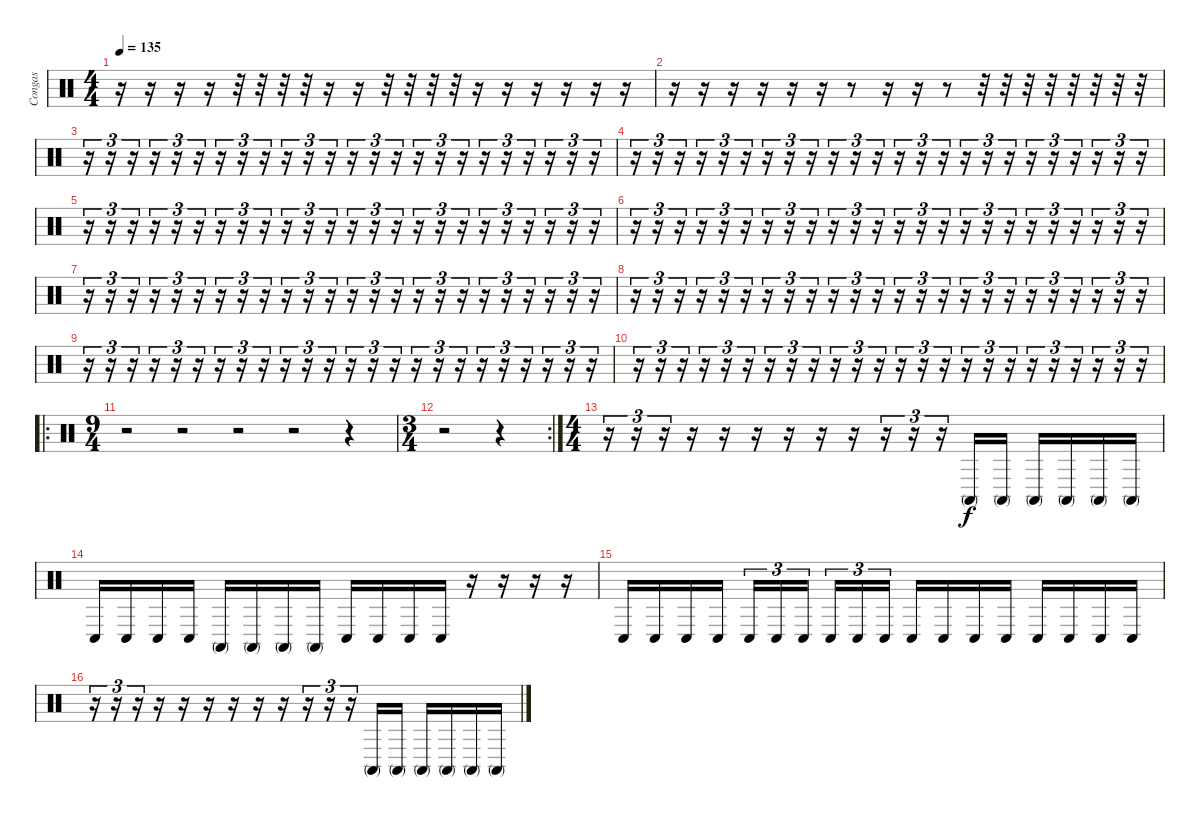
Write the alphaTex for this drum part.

\track ("Congas" "Congas") {mute instrument percussion}
\staff {score}
\articulation defaults
\ts (4 4)
\tempo 135
\clef neutral
\ks c
r.16{dy f} r.16 r.16 r.16 r.32 r.32 r.32 r.32 r.16 r.16 r.32 r.32 r.32 r.32 r.16 r.16 r.16 r.16 r.16 r.16 |
r.16 r.16 r.16 r.16 r.16 r.16 r.8 r.16 r.16 r.8 r.32 r.32 r.32 r.32 r.32 r.32 r.32 r.32 |
r.16{tu (3 2)} r.16{tu (3 2)} r.16{tu (3 2)} r.16{tu (3 2)} r.16{tu (3 2)} r.16{tu (3 2)} r.16{tu (3 2)} r.16{tu (3 2)} r.16{tu (3 2)} r.16{tu (3 2)} r.16{tu (3 2)} r.16{tu (3 2)} r.16{tu (3 2)} r.16{tu (3 2)} r.16{tu (3 2)} r.16{tu (3 2)} r.16{tu (3 2)} r.16{tu (3 2)} r.16{tu (3 2)} r.16{tu (3 2)} r.16{tu (3 2)} r.16{tu (3 2)} r.16{tu (3 2)} r.16{tu (3 2)} |
r.16{tu (3 2)} r.16{tu (3 2)} r.16{tu (3 2)} r.16{tu (3 2)} r.16{tu (3 2)} r.16{tu (3 2)} r.16{tu (3 2)} r.16{tu (3 2)} r.16{tu (3 2)} r.16{tu (3 2)} r.16{tu (3 2)} r.16{tu (3 2)} r.16{tu (3 2)} r.16{tu (3 2)} r.16{tu (3 2)} r.16{tu (3 2)} r.16{tu (3 2)} r.16{tu (3 2)} r.16{tu (3 2)} r.16{tu (3 2)} r.16{tu (3 2)} r.16{tu (3 2)} r.16{tu (3 2)} r.16{tu (3 2)} |
r.16{tu (3 2)} r.16{tu (3 2)} r.16{tu (3 2)} r.16{tu (3 2)} r.16{tu (3 2)} r.16{tu (3 2)} r.16{tu (3 2)} r.16{tu (3 2)} r.16{tu (3 2)} r.16{tu (3 2)} r.16{tu (3 2)} r.16{tu (3 2)} r.16{tu (3 2)} r.16{tu (3 2)} r.16{tu (3 2)} r.16{tu (3 2)} r.16{tu (3 2)} r.16{tu (3 2)} r.16{tu (3 2)} r.16{tu (3 2)} r.16{tu (3 2)} r.16{tu (3 2)} r.16{tu (3 2)} r.16{tu (3 2)} |
r.16{tu (3 2)} r.16{tu (3 2)} r.16{tu (3 2)} r.16{tu (3 2)} r.16{tu (3 2)} r.16{tu (3 2)} r.16{tu (3 2)} r.16{tu (3 2)} r.16{tu (3 2)} r.16{tu (3 2)} r.16{tu (3 2)} r.16{tu (3 2)} r.16{tu (3 2)} r.16{tu (3 2)} r.16{tu (3 2)} r.16{tu (3 2)} r.16{tu (3 2)} r.16{tu (3 2)} r.16{tu (3 2)} r.16{tu (3 2)} r.16{tu (3 2)} r.16{tu (3 2)} r.16{tu (3 2)} r.16{tu (3 2)} |
r.16{tu (3 2)} r.16{tu (3 2)} r.16{tu (3 2)} r.16{tu (3 2)} r.16{tu (3 2)} r.16{tu (3 2)} r.16{tu (3 2)} r.16{tu (3 2)} r.16{tu (3 2)} r.16{tu (3 2)} r.16{tu (3 2)} r.16{tu (3 2)} r.16{tu (3 2)} r.16{tu (3 2)} r.16{tu (3 2)} r.16{tu (3 2)} r.16{tu (3 2)} r.16{tu (3 2)} r.16{tu (3 2)} r.16{tu (3 2)} r.16{tu (3 2)} r.16{tu (3 2)} r.16{tu (3 2)} r.16{tu (3 2)} |
r.16{tu (3 2)} r.16{tu (3 2)} r.16{tu (3 2)} r.16{tu (3 2)} r.16{tu (3 2)} r.16{tu (3 2)} r.16{tu (3 2)} r.16{tu (3 2)} r.16{tu (3 2)} r.16{tu (3 2)} r.16{tu (3 2)} r.16{tu (3 2)} r.16{tu (3 2)} r.16{tu (3 2)} r.16{tu (3 2)} r.16{tu (3 2)} r.16{tu (3 2)} r.16{tu (3 2)} r.16{tu (3 2)} r.16{tu (3 2)} r.16{tu (3 2)} r.16{tu (3 2)} r.16{tu (3 2)} r.16{tu (3 2)} |
r.16{tu (3 2)} r.16{tu (3 2)} r.16{tu (3 2)} r.16{tu (3 2)} r.16{tu (3 2)} r.16{tu (3 2)} r.16{tu (3 2)} r.16{tu (3 2)} r.16{tu (3 2)} r.16{tu (3 2)} r.16{tu (3 2)} r.16{tu (3 2)} r.16{tu (3 2)} r.16{tu (3 2)} r.16{tu (3 2)} r.16{tu (3 2)} r.16{tu (3 2)} r.16{tu (3 2)} r.16{tu (3 2)} r.16{tu (3 2)} r.16{tu (3 2)} r.16{tu (3 2)} r.16{tu (3 2)} r.16{tu (3 2)} |
r.16{tu (3 2)} r.16{tu (3 2)} r.16{tu (3 2)} r.16{tu (3 2)} r.16{tu (3 2)} r.16{tu (3 2)} r.16{tu (3 2)} r.16{tu (3 2)} r.16{tu (3 2)} r.16{tu (3 2)} r.16{tu (3 2)} r.16{tu (3 2)} r.16{tu (3 2)} r.16{tu (3 2)} r.16{tu (3 2)} r.16{tu (3 2)} r.16{tu (3 2)} r.16{tu (3 2)} r.16{tu (3 2)} r.16{tu (3 2)} r.16{tu (3 2)} r.16{tu (3 2)} r.16{tu (3 2)} r.16{tu (3 2)} |
\ro
\ts (9 4)
r.2 r.2 r.2 r.2 r.4 |
\rc 2
\ts (3 4)
r.2 r.4 |
\ts (4 4)
r.16{tu (3 2)} r.16{tu (3 2)} r.16{tu (3 2)} r.16 r.16 r.16 r.16 r.16 r.16 r.16{tu (3 2)} r.16{tu (3 2)} r.16{tu (3 2)} "Conga high (mute)".16 "Conga high (mute)".16 "Conga high (mute)".16 "Conga high (mute)".16 "Conga high (mute)".16 "Conga high (mute)".16 |
"Conga low (hit)".16 "Conga low (hit)".16 "Conga low (hit)".16 "Conga low (hit)".16 "Conga high (mute)".16 "Conga high (mute)".16 "Conga high (mute)".16 "Conga high (mute)".16 "Conga low (hit)".16 "Conga low (hit)".16 "Conga low (hit)".16 "Conga low (hit)".16 r.16 r.16 r.16 r.16 |
"Conga low (hit)".16 "Conga low (hit)".16 "Conga low (hit)".16 "Conga low (hit)".16 "Conga low (hit)".16{tu (3 2)} "Conga low (hit)".16{tu (3 2)} "Conga low (hit)".16{tu (3 2) beam splitsecondary} "Conga low (hit)".16{tu (3 2)} "Conga low (hit)".16{tu (3 2)} "Conga low (hit)".16{tu (3 2)} "Conga low (hit)".16 "Conga low (hit)".16 "Conga low (hit)".16 "Conga low (hit)".16 "Conga low (hit)".16 "Conga low (hit)".16 "Conga low (hit)".16 "Conga low (hit)".16 |
r.16{tu (3 2)} r.16{tu (3 2)} r.16{tu (3 2)} r.16 r.16 r.16 r.16 r.16 r.16 r.16{tu (3 2)} r.16{tu (3 2)} r.16{tu (3 2)} "Conga high (mute)".16 "Conga high (mute)".16 "Conga high (mute)".16 "Conga high (mute)".16 "Conga high (mute)".16 "Conga high (mute)".16
